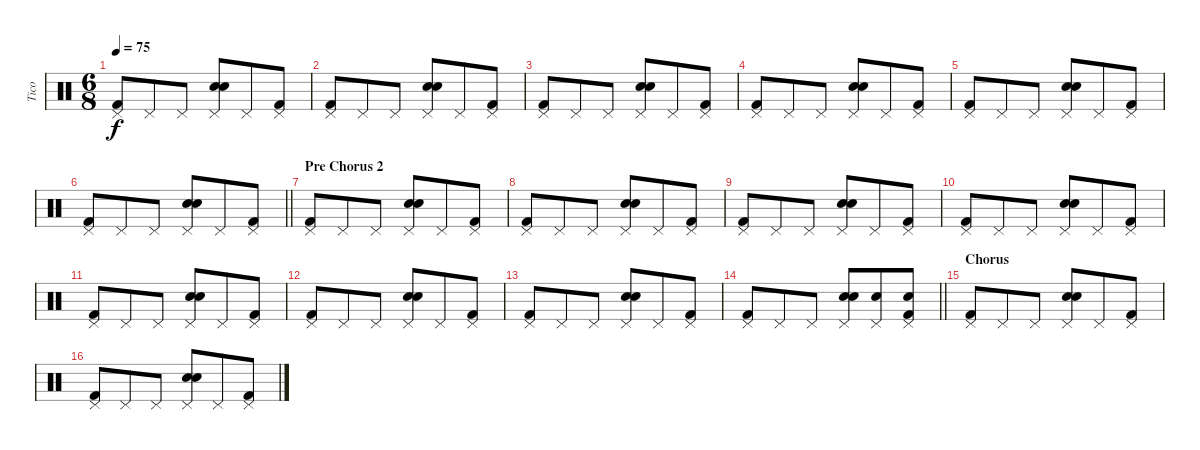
\track ("Tico" "Tico") {instrument percussion}
\staff {score}
\articulation defaults
\ts (6 8)
\tempo 75
\clef neutral
\ks c
("Kick (hit) 2" "Pedal Hi-Hat (hit)").8{dy f} "Pedal Hi-Hat (hit)".8 "Pedal Hi-Hat (hit)".8 ("Electric Snare (hit)" "Snare (hit) 2" "Pedal Hi-Hat (hit)").8 "Pedal Hi-Hat (hit)".8 ("Kick (hit) 2" "Pedal Hi-Hat (hit)").8 |
("Kick (hit) 2" "Pedal Hi-Hat (hit)").8 "Pedal Hi-Hat (hit)".8 "Pedal Hi-Hat (hit)".8 ("Electric Snare (hit)" "Snare (hit) 2" "Pedal Hi-Hat (hit)").8 "Pedal Hi-Hat (hit)".8 ("Kick (hit) 2" "Pedal Hi-Hat (hit)").8 |
("Kick (hit) 2" "Pedal Hi-Hat (hit)").8 "Pedal Hi-Hat (hit)".8 "Pedal Hi-Hat (hit)".8 ("Electric Snare (hit)" "Snare (hit) 2" "Pedal Hi-Hat (hit)").8 "Pedal Hi-Hat (hit)".8 ("Kick (hit) 2" "Pedal Hi-Hat (hit)").8 |
("Kick (hit) 2" "Pedal Hi-Hat (hit)").8 "Pedal Hi-Hat (hit)".8 "Pedal Hi-Hat (hit)".8 ("Electric Snare (hit)" "Snare (hit) 2" "Pedal Hi-Hat (hit)").8 "Pedal Hi-Hat (hit)".8 ("Kick (hit) 2" "Pedal Hi-Hat (hit)").8 |
("Kick (hit) 2" "Pedal Hi-Hat (hit)").8 "Pedal Hi-Hat (hit)".8 "Pedal Hi-Hat (hit)".8 ("Electric Snare (hit)" "Snare (hit) 2" "Pedal Hi-Hat (hit)").8 "Pedal Hi-Hat (hit)".8 ("Kick (hit) 2" "Pedal Hi-Hat (hit)").8 |
\barLineRight lightlight
("Kick (hit) 2" "Pedal Hi-Hat (hit)").8 "Pedal Hi-Hat (hit)".8 "Pedal Hi-Hat (hit)".8 ("Electric Snare (hit)" "Snare (hit) 2" "Pedal Hi-Hat (hit)").8 "Pedal Hi-Hat (hit)".8 ("Kick (hit) 2" "Pedal Hi-Hat (hit)").8 |
\section ("" "Pre Chorus 2")
("Kick (hit) 2" "Pedal Hi-Hat (hit)").8 "Pedal Hi-Hat (hit)".8 "Pedal Hi-Hat (hit)".8 ("Electric Snare (hit)" "Snare (hit) 2" "Pedal Hi-Hat (hit)").8 "Pedal Hi-Hat (hit)".8 ("Kick (hit) 2" "Pedal Hi-Hat (hit)").8 |
("Kick (hit) 2" "Pedal Hi-Hat (hit)").8 "Pedal Hi-Hat (hit)".8 "Pedal Hi-Hat (hit)".8 ("Electric Snare (hit)" "Snare (hit) 2" "Pedal Hi-Hat (hit)").8 "Pedal Hi-Hat (hit)".8 ("Kick (hit) 2" "Pedal Hi-Hat (hit)").8 |
("Kick (hit) 2" "Pedal Hi-Hat (hit)").8 "Pedal Hi-Hat (hit)".8 "Pedal Hi-Hat (hit)".8 ("Electric Snare (hit)" "Snare (hit) 2" "Pedal Hi-Hat (hit)").8 "Pedal Hi-Hat (hit)".8 ("Kick (hit) 2" "Pedal Hi-Hat (hit)").8 |
("Kick (hit) 2" "Pedal Hi-Hat (hit)").8 "Pedal Hi-Hat (hit)".8 "Pedal Hi-Hat (hit)".8 ("Electric Snare (hit)" "Snare (hit) 2" "Pedal Hi-Hat (hit)").8 "Pedal Hi-Hat (hit)".8 ("Kick (hit) 2" "Pedal Hi-Hat (hit)").8 |
("Kick (hit) 2" "Pedal Hi-Hat (hit)").8 "Pedal Hi-Hat (hit)".8 "Pedal Hi-Hat (hit)".8 ("Electric Snare (hit)" "Snare (hit) 2" "Pedal Hi-Hat (hit)").8 "Pedal Hi-Hat (hit)".8 ("Kick (hit) 2" "Pedal Hi-Hat (hit)").8 |
("Kick (hit) 2" "Pedal Hi-Hat (hit)").8 "Pedal Hi-Hat (hit)".8 "Pedal Hi-Hat (hit)".8 ("Electric Snare (hit)" "Snare (hit) 2" "Pedal Hi-Hat (hit)").8 "Pedal Hi-Hat (hit)".8 ("Kick (hit) 2" "Pedal Hi-Hat (hit)").8 |
("Kick (hit) 2" "Pedal Hi-Hat (hit)").8 "Pedal Hi-Hat (hit)".8 "Pedal Hi-Hat (hit)".8 ("Electric Snare (hit)" "Snare (hit) 2" "Pedal Hi-Hat (hit)").8 "Pedal Hi-Hat (hit)".8 ("Kick (hit) 2" "Pedal Hi-Hat (hit)").8 |
\barLineRight lightlight
("Kick (hit) 2" "Pedal Hi-Hat (hit)").8 "Pedal Hi-Hat (hit)".8 "Pedal Hi-Hat (hit)".8 ("Electric Snare (hit)" "Snare (hit) 2" "Pedal Hi-Hat (hit)").8 ("Snare (hit) 2" "Pedal Hi-Hat (hit)").8 ("Snare (hit) 2" "Kick (hit) 2" "Pedal Hi-Hat (hit)").8 |
\section ("" "Chorus")
("Kick (hit) 2" "Pedal Hi-Hat (hit)").8 "Pedal Hi-Hat (hit)".8 "Pedal Hi-Hat (hit)".8 ("Electric Snare (hit)" "Snare (hit) 2" "Pedal Hi-Hat (hit)").8 "Pedal Hi-Hat (hit)".8 ("Kick (hit) 2" "Pedal Hi-Hat (hit)").8 |
("Kick (hit) 2" "Pedal Hi-Hat (hit)").8 "Pedal Hi-Hat (hit)".8 "Pedal Hi-Hat (hit)".8 ("Electric Snare (hit)" "Snare (hit) 2" "Pedal Hi-Hat (hit)").8 "Pedal Hi-Hat (hit)".8 ("Kick (hit) 2" "Pedal Hi-Hat (hit)").8
